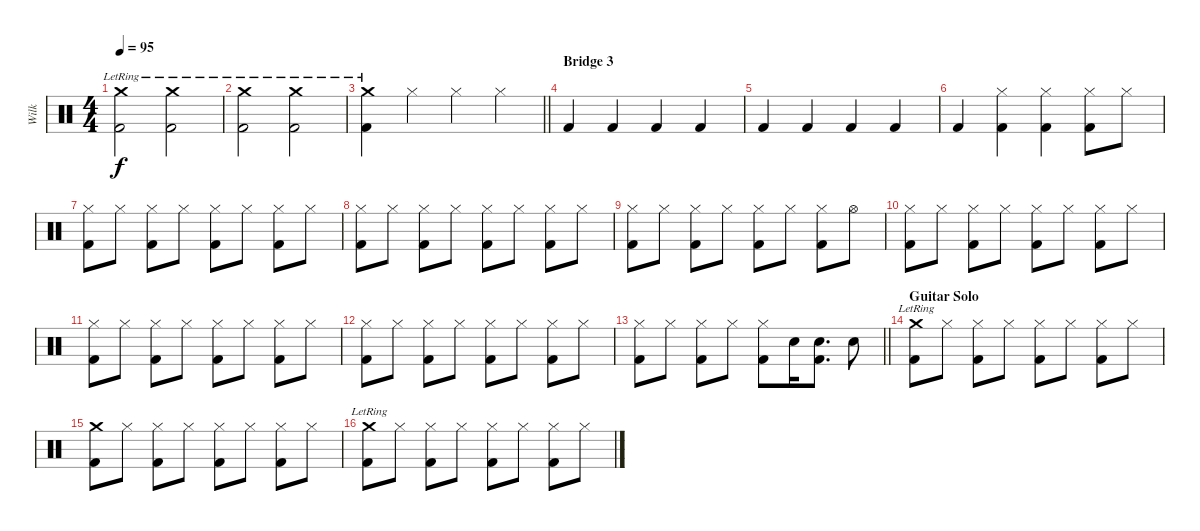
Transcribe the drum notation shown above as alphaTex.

\track ("Wilk" "Wilk") {instrument percussion}
\staff {score}
\articulation defaults
\ts (4 4)
\tempo 95
\clef neutral
\ks c
("Crash medium (hit)"{lr} "Kick (hit) 2").2{dy f} ("Crash medium (hit)"{lr} "Kick (hit) 2").2 |
("Crash medium (hit)"{lr} "Kick (hit) 2").2 ("Crash medium (hit)"{lr} "Kick (hit) 2").2 |
\barLineRight lightlight
("Crash medium (hit)"{lr} "Kick (hit) 2").4 "Hi-Hat (closed)".4 "Hi-Hat (closed)".4 "Hi-Hat (closed)".4 |
\section ("" "Bridge 3")
"Kick (hit) 2".4 "Kick (hit) 2".4 "Kick (hit) 2".4 "Kick (hit) 2".4 |
"Kick (hit) 2".4 "Kick (hit) 2".4 "Kick (hit) 2".4 "Kick (hit) 2".4 |
"Kick (hit) 2".4 ("Hi-Hat (closed)" "Kick (hit) 2").4 ("Hi-Hat (closed)" "Kick (hit) 2").4 ("Hi-Hat (closed)" "Kick (hit) 2").8 "Hi-Hat (closed)".8 |
("Hi-Hat (closed)" "Kick (hit) 2").8 "Hi-Hat (closed)".8 ("Hi-Hat (closed)" "Kick (hit) 2").8 "Hi-Hat (closed)".8 ("Hi-Hat (closed)" "Kick (hit) 2").8 "Hi-Hat (closed)".8 ("Hi-Hat (closed)" "Kick (hit) 2").8 "Hi-Hat (closed)".8 |
("Hi-Hat (closed)" "Kick (hit) 2").8 "Hi-Hat (closed)".8 ("Hi-Hat (closed)" "Kick (hit) 2").8 "Hi-Hat (closed)".8 ("Hi-Hat (closed)" "Kick (hit) 2").8 "Hi-Hat (closed)".8 ("Hi-Hat (closed)" "Kick (hit) 2").8 "Hi-Hat (closed)".8 |
("Hi-Hat (closed)" "Kick (hit) 2").8 "Hi-Hat (closed)".8 ("Hi-Hat (closed)" "Kick (hit) 2").8 "Hi-Hat (closed)".8 ("Hi-Hat (closed)" "Kick (hit) 2").8 "Hi-Hat (closed)".8 ("Hi-Hat (closed)" "Kick (hit) 2").8 "Hi-Hat (open)".8 |
("Hi-Hat (closed)" "Kick (hit) 2").8 "Hi-Hat (closed)".8 ("Hi-Hat (closed)" "Kick (hit) 2").8 "Hi-Hat (closed)".8 ("Hi-Hat (closed)" "Kick (hit) 2").8 "Hi-Hat (closed)".8 ("Hi-Hat (closed)" "Kick (hit) 2").8 "Hi-Hat (closed)".8 |
("Hi-Hat (closed)" "Kick (hit) 2").8 "Hi-Hat (closed)".8 ("Hi-Hat (closed)" "Kick (hit) 2").8 "Hi-Hat (closed)".8 ("Hi-Hat (closed)" "Kick (hit) 2").8 "Hi-Hat (closed)".8 ("Hi-Hat (closed)" "Kick (hit) 2").8 "Hi-Hat (closed)".8 |
("Hi-Hat (closed)" "Kick (hit) 2").8 "Hi-Hat (closed)".8 ("Hi-Hat (closed)" "Kick (hit) 2").8 "Hi-Hat (closed)".8 ("Hi-Hat (closed)" "Kick (hit) 2").8 "Hi-Hat (closed)".8 ("Hi-Hat (closed)" "Kick (hit) 2").8 "Hi-Hat (closed)".8 |
\barLineRight lightlight
("Hi-Hat (closed)" "Kick (hit) 2").8 "Hi-Hat (closed)".8 ("Hi-Hat (closed)" "Kick (hit) 2").8 "Hi-Hat (closed)".8 ("Hi-Hat (closed)" "Kick (hit) 2").8 "Snare (hit) 2".16 ("Snare (hit) 2" "Kick (hit) 2").8{d} "Snare (hit) 2".8 |
\section ("" "Guitar Solo")
("Crash medium (hit)"{lr} "Kick (hit) 2").8 "Hi-Hat (closed)".8 ("Hi-Hat (closed)" "Kick (hit) 2").8 "Hi-Hat (closed)".8 ("Hi-Hat (closed)" "Kick (hit) 2").8 "Hi-Hat (closed)".8 ("Hi-Hat (closed)" "Kick (hit) 2").8 "Hi-Hat (closed)".8 |
("Crash medium (hit)" "Kick (hit) 2").8 "Hi-Hat (closed)".8 ("Hi-Hat (closed)" "Kick (hit) 2").8 "Hi-Hat (closed)".8 ("Hi-Hat (closed)" "Kick (hit) 2").8 "Hi-Hat (closed)".8 ("Hi-Hat (closed)" "Kick (hit) 2").8 "Hi-Hat (closed)".8 |
("Crash medium (hit)"{lr} "Kick (hit) 2").8 "Hi-Hat (closed)".8 ("Hi-Hat (closed)" "Kick (hit) 2").8 "Hi-Hat (closed)".8 ("Hi-Hat (closed)" "Kick (hit) 2").8 "Hi-Hat (closed)".8 ("Hi-Hat (closed)" "Kick (hit) 2").8 "Hi-Hat (closed)".8
